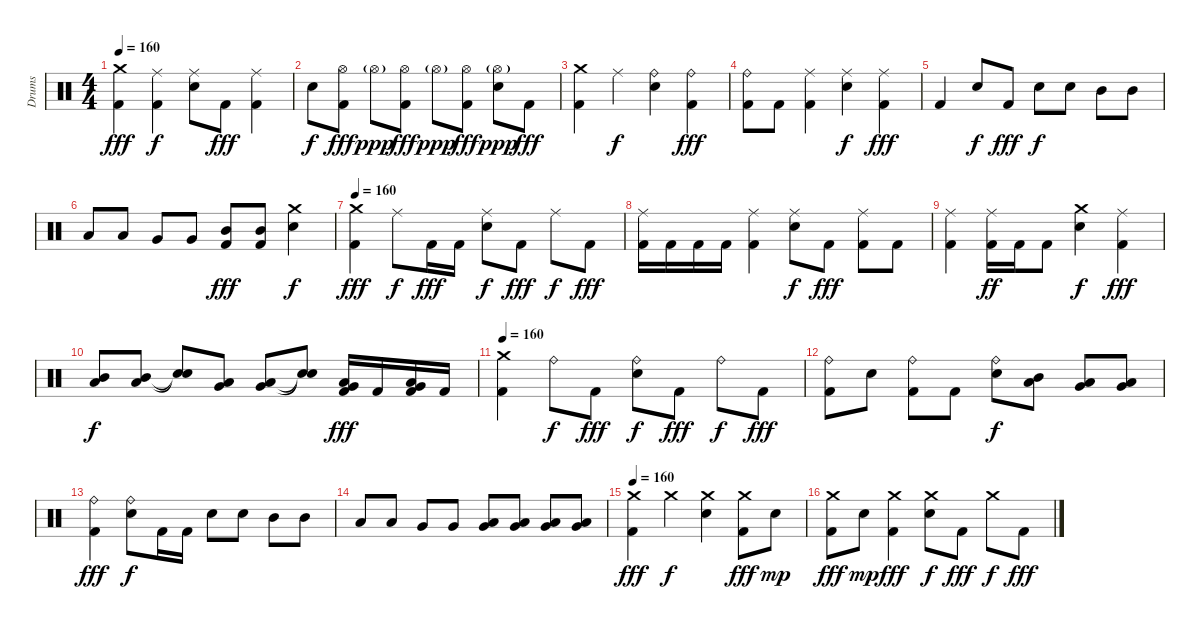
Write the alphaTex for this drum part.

\track ("Drums" "Drums") {instrument percussion}
\staff {score}
\articulation defaults
\ts (4 4)
\tempo 160
\clef neutral
\ks c
("Crash medium (hit)" "Kick (hit) 2").4{dy fff} ("Ride (middle)" "Kick (hit) 2").4{dy f} ("Ride (middle)" "Snare (hit) 2").8 "Kick (hit) 2".8{dy fff} ("Ride (middle)" "Kick (hit) 2").4 |
"Snare (hit) 2".8{dy f} ("Hi-Hat (open)" "Kick (hit) 2").8{dy fff} "Hi-Hat (open)"{g}.8{dy ppp} ("Hi-Hat (open)" "Kick (hit) 2").8{dy fff} "Hi-Hat (open)"{g}.8{dy ppp} ("Hi-Hat (open)" "Kick (hit) 2").8{dy fff} ("Hi-Hat (open)"{g} "Snare (hit) 2").8{dy ppp} "Kick (hit) 2".8{dy fff} |
("Crash medium (hit)" "Kick (hit) 2").4 "Ride (middle)".4{dy f} ("Ride (bell)" "Snare (hit) 2").4 ("Ride (bell)" "Kick (hit) 2").4{dy fff} |
("Ride (bell)" "Kick (hit) 2").8 "Kick (hit) 2".8 ("Ride (middle)" "Kick (hit) 2").4 ("Ride (middle)" "Snare (hit) 2").4{dy f} ("Ride (middle)" "Kick (hit) 2").4{dy fff} |
"Kick (hit) 2".4 "Snare (hit) 2".8{dy f} "Kick (hit) 2".8{dy fff} "Snare (hit) 2".8{dy f} "Snare (hit) 2".8 "Mid Tom (hit)".8 "Mid Tom (hit)".8 |
"Low Tom (hit)".8 "Low Tom (hit)".8 "Very Low Tom (hit)".8 "Very Low Tom (hit)".8 ("Mid Tom (hit)" "Kick (hit) 2").8{dy fff} ("Mid Tom (hit)" "Kick (hit) 2").8 ("Crash medium (hit)" "Snare (hit) 2").4{dy f} |
\tempo 160
("Crash medium (hit)" "Kick (hit) 2").4{dy fff} "Ride (middle)".8{dy f} "Kick (hit) 2".16{dy fff} "Kick (hit) 2".16 ("Ride (middle)" "Snare (hit) 2").8{dy f} "Kick (hit) 2".8{dy fff} "Ride (middle)".8{dy f} "Kick (hit) 2".8{dy fff} |
("Ride (middle)" "Kick (hit) 2").16 "Kick (hit) 2".16 "Kick (hit) 2".16 "Kick (hit) 2".16 ("Ride (middle)" "Kick (hit) 2").4 ("Ride (middle)" "Snare (hit) 2").8{dy f} "Kick (hit) 2".8{dy fff} ("Ride (middle)" "Kick (hit) 2").8 "Kick (hit) 2".8 |
("Ride (middle)" "Kick (hit) 2").4 ("Ride (middle)" "Kick (hit) 2").16{dy ff} "Kick (hit) 2".16 "Kick (hit) 2".8 ("Crash medium (hit)" "Snare (hit) 2").4{dy f} ("Ride (middle)" "Kick (hit) 2").4{dy fff} |
("Mid Tom (hit)" "Low Tom (hit)").8{dy f} ("Mid Tom (hit)" "Low Tom (hit)").8 ("Snare (hit)"{t} "Snare (hit)"{t}).8 ("Very Low Tom (hit)" "Low Tom (hit)").8 ("Very Low Tom (hit)" "Low Tom (hit)").8 ("Snare (hit)"{t} "Snare (hit)"{t}).8 ("Low Floor Tom (hit)" "Very Low Tom (hit)" "Kick (hit) 2").16{dy fff} "Kick (hit) 2".16 ("Low Floor Tom (hit)" "Very Low Tom (hit)" "Kick (hit) 2").16 "Kick (hit) 2".16 |
\tempo 160
("Crash medium (hit)" "Kick (hit) 2").4 "Ride (bell)".8{dy f} "Kick (hit) 2".8{dy fff} ("Ride (bell)" "Snare (hit) 2").8{dy f} "Kick (hit) 2".8{dy fff} "Ride (bell)".8{dy f} "Kick (hit) 2".8{dy fff} |
("Ride (bell)" "Kick (hit) 2").8 "Snare (hit) 2".8 ("Ride (bell)" "Kick (hit) 2").8 "Kick (hit) 2".8 ("Ride (bell)" "Snare (hit) 2").8{dy f} ("Mid Tom (hit)" "Low Tom (hit)").8 ("Very Low Tom (hit)" "Low Tom (hit)").8 ("Very Low Tom (hit)" "Low Tom (hit)").8 |
("Ride (bell)" "Kick (hit) 2").4{dy fff} ("Ride (bell)" "Snare (hit) 2").8{dy f} "Kick (hit) 2".16 "Kick (hit) 2".16 "Snare (hit) 2".8 "Snare (hit) 2".8 "Mid Tom (hit)".8 "Mid Tom (hit)".8 |
"Low Tom (hit)".8 "Low Tom (hit)".8 "Very Low Tom (hit)".8 "Very Low Tom (hit)".8 ("Very Low Tom (hit)" "Low Floor Tom (hit)").8 ("Very Low Tom (hit)" "Low Floor Tom (hit)").8 ("Very Low Tom (hit)" "Low Floor Tom (hit)").8 ("Very Low Tom (hit)" "Low Floor Tom (hit)").8 |
\tempo 160
("Crash medium (hit)" "Kick (hit) 2").4{dy fff} "Crash medium (hit)".4{dy f} ("Crash medium (hit)" "Snare (hit) 2").4 ("Crash medium (hit)" "Kick (hit) 2").8{dy fff} "Snare (hit) 2".8{dy mp} |
("Crash medium (hit)" "Kick (hit) 2").8{dy fff} "Snare (hit) 2".8{dy mp} ("Crash medium (hit)" "Kick (hit) 2").4{dy fff} ("Crash medium (hit)" "Snare (hit) 2").8{dy f} "Kick (hit) 2".8{dy fff} "Crash medium (hit)".8{dy f} "Kick (hit) 2".8{dy fff}
